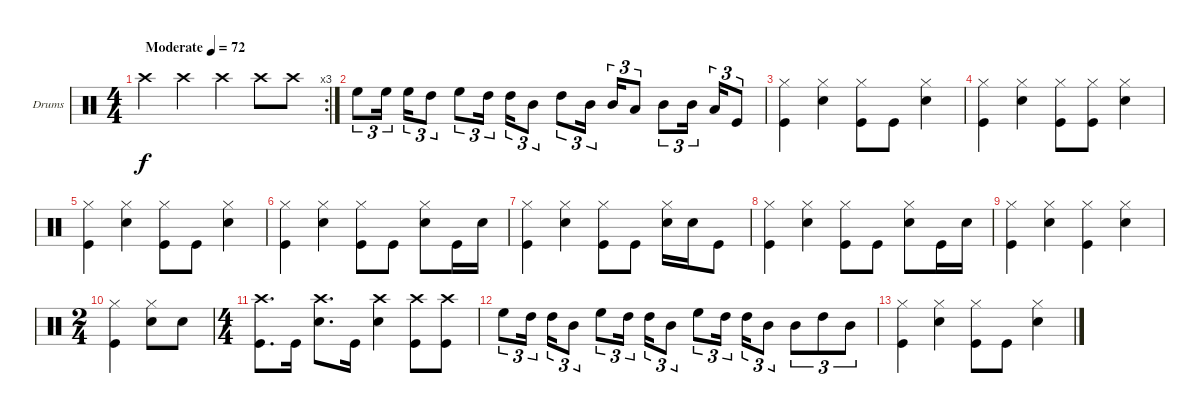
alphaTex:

\bracketExtendMode groupsimilarinstruments
\firstSystemTrackNameOrientation horizontal
\otherSystemsTrackNameOrientation horizontal
\track ("Drumkit" "Drums") {solo instrument percussion}
\staff {score}
\articulation defaults
\rc 3
\ts (4 4)
\beaming (8 2 2 2 2)
\tempo (72 "Moderate")
\clef neutral
\ks c "Crash high (hit)".4{dy f} "Crash high (hit)".4 "Crash high (hit)".4 "Crash high (hit)".8 "Crash high (hit)".8
|
"High Floor Tom (hit)".8{tu (3 2)} "High Floor Tom (hit)".16{tu (3 2)} "High Floor Tom (hit)".16{tu (3 2)} "High Tom (hit)".8{tu (3 2)} "High Floor Tom (hit)".8{tu (3 2)} "High Tom (hit)".16{tu (3 2)} "High Tom (hit)".16{tu (3 2)} "Mid Tom (hit)".8{tu (3 2)} "High Tom (hit)".8{tu (3 2)} "Mid Tom (hit)".16{tu (3 2)} "Mid Tom (hit)".16{tu (3 2)} "Low Tom (hit)".8{tu (3 2)} "Mid Tom (hit)".8{tu (3 2)} "Mid Tom (hit)".16{tu (3 2)} "Low Tom (hit)".16{tu (3 2)} "Kick (hit)".8{tu (3 2)} |
("Hi-Hat (closed)" "Kick (hit)").4 ("Hi-Hat (closed)" "Snare (hit) 2").4 ("Hi-Hat (closed)" "Kick (hit)").8 "Kick (hit)".8 ("Hi-Hat (closed)" "Snare (hit) 2").4 |
("Hi-Hat (closed)" "Kick (hit)").4 ("Hi-Hat (closed)" "Snare (hit) 2").4 ("Hi-Hat (closed)" "Kick (hit)").8 ("Hi-Hat (closed)" "Kick (hit)").8 ("Hi-Hat (closed)" "Snare (hit) 2").4 |
("Hi-Hat (closed)" "Kick (hit)").4 ("Hi-Hat (closed)" "Snare (hit) 2").4 ("Hi-Hat (closed)" "Kick (hit)").8 "Kick (hit)".8 ("Hi-Hat (closed)" "Snare (hit) 2").4 |
("Hi-Hat (closed)" "Kick (hit)").4 ("Hi-Hat (closed)" "Snare (hit) 2").4 ("Hi-Hat (closed)" "Kick (hit)").8 "Kick (hit)".8 ("Hi-Hat (closed)" "Snare (hit) 2").8 "Kick (hit)".16 "Snare (hit) 2".16 |
("Hi-Hat (closed)" "Kick (hit)").4 ("Hi-Hat (closed)" "Snare (hit) 2").4 ("Hi-Hat (closed)" "Kick (hit)").8 "Kick (hit)".8 ("Hi-Hat (closed)" "Snare (hit) 2").16 "Snare (hit) 2".16 "Kick (hit)".8 |
("Hi-Hat (closed)" "Kick (hit)").4 ("Hi-Hat (closed)" "Snare (hit) 2").4 ("Hi-Hat (closed)" "Kick (hit)").8 "Kick (hit)".8 ("Hi-Hat (closed)" "Snare (hit) 2").8 "Kick (hit)".16 "Snare (hit) 2".16 |
("Hi-Hat (closed)" "Kick (hit)").4 ("Hi-Hat (closed)" "Snare (hit) 2").4 ("Hi-Hat (closed)" "Kick (hit)").4 ("Hi-Hat (closed)" "Snare (hit) 2").4 |
\ts (2 4)
\beaming (8 2 2)
("Hi-Hat (closed)" "Kick (hit)").4 ("Hi-Hat (closed)" "Snare (hit) 2").8 "Snare (hit) 2".8 |
\ts (4 4)
\beaming (8 2 2 2 2)
("Crash high (hit)" "Kick (hit)").8{d} "Kick (hit)".16 ("Crash high (hit)" "Snare (hit) 2").8{d} "Kick (hit)".16 ("Crash high (hit)" "Snare (hit) 2").4 ("Crash high (hit)" "Kick (hit)").8 ("Crash high (hit)" "Kick (hit)").8 |
"High Floor Tom (hit)".8{tu (3 2)} "High Tom (hit)".16{tu (3 2)} "High Tom (hit)".16{tu (3 2)} "Mid Tom (hit)".8{tu (3 2)} "High Floor Tom (hit)".8{tu (3 2)} "High Tom (hit)".16{tu (3 2)} "High Tom (hit)".16{tu (3 2)} "Mid Tom (hit)".8{tu (3 2)} "High Floor Tom (hit)".8{tu (3 2)} "High Tom (hit)".16{tu (3 2)} "High Tom (hit)".16{tu (3 2)} "Mid Tom (hit)".8{tu (3 2)} "Mid Tom (hit)".8{tu (3 2)} "High Tom (hit)".8{tu (3 2)} "Mid Tom (hit)".8{tu (3 2)} |
("Hi-Hat (closed)" "Kick (hit)").4 ("Hi-Hat (closed)" "Snare (hit) 2").4 ("Hi-Hat (closed)" "Kick (hit)").8 "Kick (hit)".8 ("Hi-Hat (closed)" "Snare (hit) 2").4
